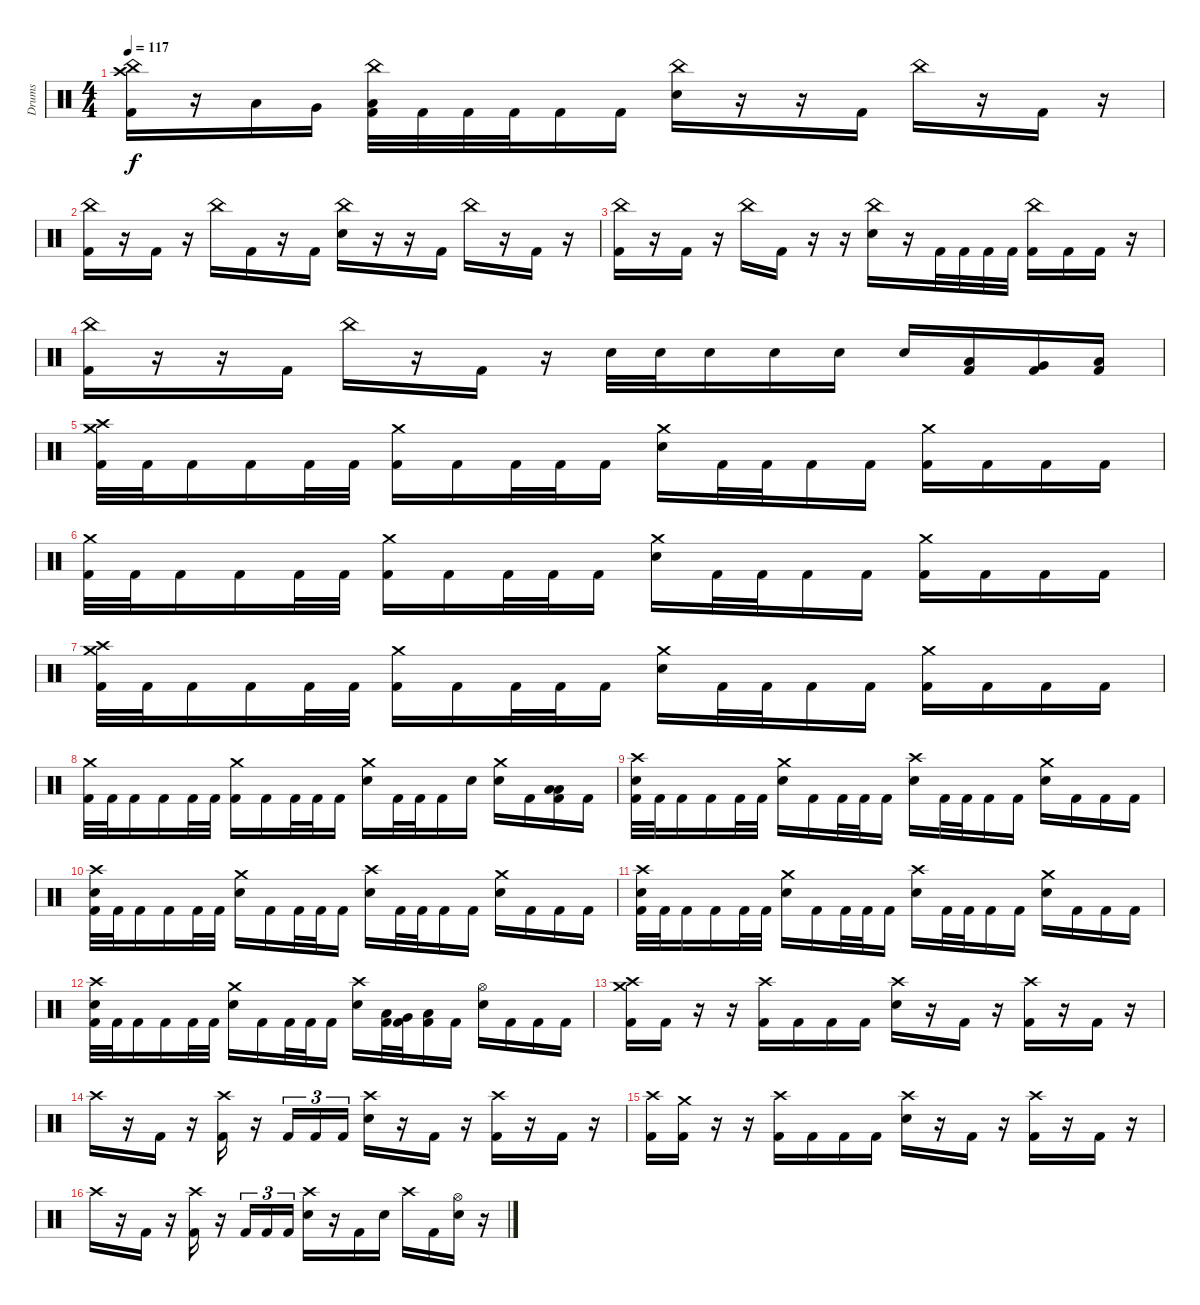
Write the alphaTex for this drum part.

\track ("Drums" "Drums") {instrument percussion}
\staff {score}
\articulation defaults
\ts (4 4)
\tempo 117
\clef neutral
\ks c
("China (hit)" "Crash high (hit)" "Kick (hit) 2").16{dy f} r.16 "Low Tom (hit)".16 "Very Low Tom (hit)".16 ("China (hit)" "Low Floor Tom (hit)" "Kick (hit) 2").32 "Kick (hit) 2".32 "Kick (hit) 2".32 "Kick (hit) 2".32 "Kick (hit) 2".16 "Kick (hit) 2".16 ("China (hit)" "Snare (hit) 2").16 r.16 r.16 "Kick (hit) 2".16 "China (hit)".16 r.16 "Kick (hit) 2".16 r.16 |
("China (hit)" "Kick (hit) 2").16 r.16 "Kick (hit) 2".16 r.16 "China (hit)".16 "Kick (hit) 2".16 r.16 "Kick (hit) 2".16 ("China (hit)" "Snare (hit) 2").16 r.16 r.16 "Kick (hit) 2".16 "China (hit)".16 r.16 "Kick (hit) 2".16 r.16 |
("China (hit)" "Kick (hit) 2").16 r.16 "Kick (hit) 2".16 r.16 "China (hit)".16 "Kick (hit) 2".16 r.16 r.16 ("China (hit)" "Snare (hit) 2").16 r.16 "Kick (hit) 2".32 "Kick (hit) 2".32 "Kick (hit) 2".32 "Kick (hit) 2".32 ("China (hit)" "Kick (hit) 2").16 "Kick (hit) 2".16 "Kick (hit) 2".16 r.16 |
("China (hit)" "Kick (hit) 2").16 r.16 r.16 "Kick (hit) 2".16 "China (hit)".16 r.16 "Kick (hit) 2".16 r.16 "Snare (hit) 2".32 "Snare (hit) 2".32 "Snare (hit) 2".16 "Snare (hit) 2".16 "Snare (hit) 2".16 "Snare (hit) 2".16 ("Low Tom (hit)" "Kick (hit) 2").16 ("Very Low Tom (hit)" "Kick (hit) 2").16 ("Low Floor Tom (hit)" "Kick (hit) 2").16 |
("Crash medium (hit)" "Crash high (hit)" "Kick (hit) 2").32 "Kick (hit) 2".32 "Kick (hit) 2".16 "Kick (hit) 2".16 "Kick (hit) 2".32 "Kick (hit) 2".32 ("Crash medium (hit)" "Kick (hit) 2").16 "Kick (hit) 2".16 "Kick (hit) 2".32 "Kick (hit) 2".32 "Kick (hit) 2".16 ("Crash medium (hit)" "Snare (hit) 2").16 "Kick (hit) 2".32 "Kick (hit) 2".32 "Kick (hit) 2".16 "Kick (hit) 2".16 ("Crash medium (hit)" "Kick (hit) 2").16 "Kick (hit) 2".16 "Kick (hit) 2".16 "Kick (hit) 2".16 |
("Crash medium (hit)" "Kick (hit) 2").32 "Kick (hit) 2".32 "Kick (hit) 2".16 "Kick (hit) 2".16 "Kick (hit) 2".32 "Kick (hit) 2".32 ("Crash medium (hit)" "Kick (hit) 2").16 "Kick (hit) 2".16 "Kick (hit) 2".32 "Kick (hit) 2".32 "Kick (hit) 2".16 ("Crash medium (hit)" "Snare (hit) 2").16 "Kick (hit) 2".32 "Kick (hit) 2".32 "Kick (hit) 2".16 "Kick (hit) 2".16 ("Crash medium (hit)" "Kick (hit) 2").16 "Kick (hit) 2".16 "Kick (hit) 2".16 "Kick (hit) 2".16 |
("Crash medium (hit)" "Crash high (hit)" "Kick (hit) 2").32 "Kick (hit) 2".32 "Kick (hit) 2".16 "Kick (hit) 2".16 "Kick (hit) 2".32 "Kick (hit) 2".32 ("Crash medium (hit)" "Kick (hit) 2").16 "Kick (hit) 2".16 "Kick (hit) 2".32 "Kick (hit) 2".32 "Kick (hit) 2".16 ("Crash medium (hit)" "Snare (hit) 2").16 "Kick (hit) 2".32 "Kick (hit) 2".32 "Kick (hit) 2".16 "Kick (hit) 2".16 ("Crash medium (hit)" "Kick (hit) 2").16 "Kick (hit) 2".16 "Kick (hit) 2".16 "Kick (hit) 2".16 |
("Crash medium (hit)" "Kick (hit) 2").32 "Kick (hit) 2".32 "Kick (hit) 2".16 "Kick (hit) 2".16 "Kick (hit) 2".32 "Kick (hit) 2".32 ("Crash medium (hit)" "Kick (hit) 2").16 "Kick (hit) 2".16 "Kick (hit) 2".32 "Kick (hit) 2".32 "Kick (hit) 2".16 ("Crash medium (hit)" "Snare (hit) 2").16 "Kick (hit) 2".32 "Kick (hit) 2".32 "Kick (hit) 2".16 "Snare (hit) 2".16 ("Crash medium (hit)" "Snare (hit) 2").16 "Kick (hit) 2".16 ("Low Tom (hit)" "Low Floor Tom (hit)" "Kick (hit) 2").16 "Kick (hit) 2".16 |
("Crash high (hit)" "Snare (hit) 2" "Kick (hit) 2").32 "Kick (hit) 2".32 "Kick (hit) 2".16 "Kick (hit) 2".16 "Kick (hit) 2".32 "Kick (hit) 2".32 ("Crash medium (hit)" "Snare (hit) 2").16 "Kick (hit) 2".16 "Kick (hit) 2".32 "Kick (hit) 2".32 "Kick (hit) 2".16 ("Crash high (hit)" "Snare (hit) 2").16 "Kick (hit) 2".32 "Kick (hit) 2".32 "Kick (hit) 2".16 "Kick (hit) 2".16 ("Crash medium (hit)" "Snare (hit) 2").16 "Kick (hit) 2".16 "Kick (hit) 2".16 "Kick (hit) 2".16 |
("Crash high (hit)" "Snare (hit) 2" "Kick (hit) 2").32 "Kick (hit) 2".32 "Kick (hit) 2".16 "Kick (hit) 2".16 "Kick (hit) 2".32 "Kick (hit) 2".32 ("Crash medium (hit)" "Snare (hit) 2").16 "Kick (hit) 2".16 "Kick (hit) 2".32 "Kick (hit) 2".32 "Kick (hit) 2".16 ("Crash high (hit)" "Snare (hit) 2").16 "Kick (hit) 2".32 "Kick (hit) 2".32 "Kick (hit) 2".16 "Kick (hit) 2".16 ("Crash medium (hit)" "Snare (hit) 2").16 "Kick (hit) 2".16 "Kick (hit) 2".16 "Kick (hit) 2".16 |
("Crash high (hit)" "Snare (hit) 2" "Kick (hit) 2").32 "Kick (hit) 2".32 "Kick (hit) 2".16 "Kick (hit) 2".16 "Kick (hit) 2".32 "Kick (hit) 2".32 ("Crash medium (hit)" "Snare (hit) 2").16 "Kick (hit) 2".16 "Kick (hit) 2".32 "Kick (hit) 2".32 "Kick (hit) 2".16 ("Crash high (hit)" "Snare (hit) 2").16 "Kick (hit) 2".32 "Kick (hit) 2".32 "Kick (hit) 2".16 "Kick (hit) 2".16 ("Crash medium (hit)" "Snare (hit) 2").16 "Kick (hit) 2".16 "Kick (hit) 2".16 "Kick (hit) 2".16 |
("Crash high (hit)" "Snare (hit) 2" "Kick (hit) 2").32 "Kick (hit) 2".32 "Kick (hit) 2".16 "Kick (hit) 2".16 "Kick (hit) 2".32 "Kick (hit) 2".32 ("Crash medium (hit)" "Snare (hit) 2").16 "Kick (hit) 2".16 "Kick (hit) 2".32 "Kick (hit) 2".32 "Kick (hit) 2".16 ("Crash high (hit)" "Snare (hit) 2").16 ("Low Tom (hit)" "Kick (hit) 2").32 ("Very Low Tom (hit)" "Kick (hit) 2").32 ("Low Floor Tom (hit)" "Kick (hit) 2").16 "Kick (hit) 2".16 ("Hi-Hat (open)" "Snare (hit) 2").16 "Kick (hit) 2".16 "Kick (hit) 2".16 "Kick (hit) 2".16 |
("Crash high (hit)" "Crash medium (hit)" "Kick (hit) 2").16 "Kick (hit) 2".16 r.16 r.16 ("Crash high (hit)" "Kick (hit) 2").16 "Kick (hit) 2".16 "Kick (hit) 2".16 "Kick (hit) 2".16 ("Crash high (hit)" "Snare (hit) 2").16 r.16 "Kick (hit) 2".16 r.16 ("Crash high (hit)" "Kick (hit) 2").16 r.16 "Kick (hit) 2".16 r.16 |
"Crash high (hit)".16 r.16 "Kick (hit) 2".16 r.16 ("Crash high (hit)" "Kick (hit) 2").16 r.16 "Kick (hit) 2".16{tu (3 2)} "Kick (hit) 2".16{tu (3 2)} "Kick (hit) 2".16{tu (3 2)} ("Crash high (hit)" "Snare (hit) 2").16 r.16 "Kick (hit) 2".16 r.16 ("Crash high (hit)" "Kick (hit) 2").16 r.16 "Kick (hit) 2".16 r.16 |
("Crash high (hit)" "Kick (hit) 2").16 ("Crash medium (hit)" "Kick (hit) 2").16 r.16 r.16 ("Crash high (hit)" "Kick (hit) 2").16 "Kick (hit) 2".16 "Kick (hit) 2".16 "Kick (hit) 2".16 ("Crash high (hit)" "Snare (hit) 2").16 r.16 "Kick (hit) 2".16 r.16 ("Crash high (hit)" "Kick (hit) 2").16 r.16 "Kick (hit) 2".16 r.16 |
"Crash high (hit)".16 r.16 "Kick (hit) 2".16 r.16 ("Crash high (hit)" "Kick (hit) 2").16 r.16 "Kick (hit) 2".16{tu (3 2)} "Kick (hit) 2".16{tu (3 2)} "Kick (hit) 2".16{tu (3 2)} ("Crash high (hit)" "Snare (hit) 2").16 r.16 "Kick (hit) 2".16 "Snare (hit) 2".16 "Crash high (hit)".16 "Kick (hit) 2".16 ("Hi-Hat (open)" "Snare (hit) 2").16 r.16
